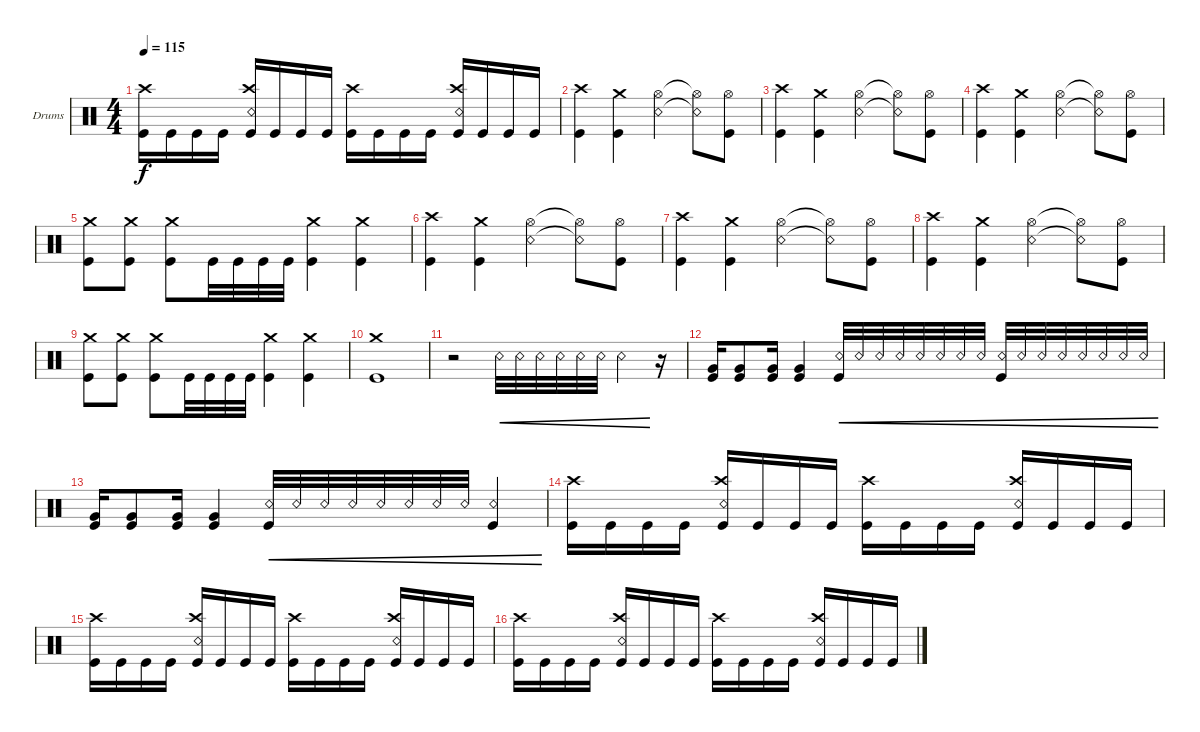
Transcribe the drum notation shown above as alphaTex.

\bracketExtendMode groupsimilarinstruments
\firstSystemTrackNameOrientation horizontal
\otherSystemsTrackNameOrientation horizontal
\track ("Drumkit" "Drums") {instrument percussion}
\staff {score}
\articulation defaults
\ts (4 4)
\tempo 115
\clef neutral
\scale
0.333333
\ks c
("Kick (hit)" "Crash high (hit)").16{dy f} "Kick (hit)".16 "Kick (hit)".16 "Kick (hit)".16 ("Kick (hit)" "Snare (rim shot)" "Crash high (hit)").16 "Kick (hit)".16 "Kick (hit)".16 "Kick (hit)".16 ("Kick (hit)" "Crash high (hit)").16 "Kick (hit)".16 "Kick (hit)".16 "Kick (hit)".16 ("Kick (hit)" "Snare (rim shot)" "Crash high (hit)").16 "Kick (hit)".16 "Kick (hit)".16 "Kick (hit)".16 |
\scale
0.333333 ("Kick (hit)" "Crash high (hit)").4 ("Kick (hit)" "Crash medium (hit)").4 ("Snare (rim shot)" "Hi-Hat (open)").4 ("Snare (rim shot)"{t} "Hi-Hat (open)"{t}).8 ("Kick (hit)" "Hi-Hat (open)").8 |
\scale
0.333333 ("Kick (hit)" "Crash high (hit)").4 ("Kick (hit)" "Crash medium (hit)").4 ("Snare (rim shot)" "Hi-Hat (open)").4 ("Snare (rim shot)"{t} "Hi-Hat (open)"{t}).8 ("Kick (hit)" "Hi-Hat (open)").8 |
\scale
0.333333 ("Kick (hit)" "Crash high (hit)").4 ("Kick (hit)" "Crash medium (hit)").4 ("Snare (rim shot)" "Hi-Hat (open)").4 ("Snare (rim shot)"{t} "Hi-Hat (open)"{t}).8 ("Kick (hit)" "Hi-Hat (open)").8 |
\scale
0.333333 ("Kick (hit)" "Crash medium (hit)").8 ("Kick (hit)" "Crash medium (hit)").8 ("Kick (hit)" "Crash medium (hit)").8 "Kick (hit)".32 "Kick (hit)".32 "Kick (hit)".32 "Kick (hit)".32 ("Kick (hit)" "Crash medium (hit)").4 ("Kick (hit)" "Crash medium (hit)").4 |
\scale
0.333333 ("Kick (hit)" "Crash high (hit)").4 ("Kick (hit)" "Crash medium (hit)").4 ("Snare (rim shot)" "Hi-Hat (open)").4 ("Snare (rim shot)"{t} "Hi-Hat (open)"{t}).8 ("Kick (hit)" "Hi-Hat (open)").8 |
\scale
0.333333 ("Kick (hit)" "Crash high (hit)").4 ("Kick (hit)" "Crash medium (hit)").4 ("Snare (rim shot)" "Hi-Hat (open)").4 ("Snare (rim shot)"{t} "Hi-Hat (open)"{t}).8 ("Kick (hit)" "Hi-Hat (open)").8 |
\scale
0.333333 ("Kick (hit)" "Crash high (hit)").4 ("Kick (hit)" "Crash medium (hit)").4 ("Snare (rim shot)" "Hi-Hat (open)").4 ("Snare (rim shot)"{t} "Hi-Hat (open)"{t}).8 ("Kick (hit)" "Hi-Hat (open)").8 |
\scale
0.333333 ("Kick (hit)" "Crash medium (hit)").8 ("Kick (hit)" "Crash medium (hit)").8 ("Kick (hit)" "Crash medium (hit)").8 "Kick (hit)".32 "Kick (hit)".32 "Kick (hit)".32 "Kick (hit)".32 ("Kick (hit)" "Crash medium (hit)").4 ("Kick (hit)" "Crash medium (hit)").4 |
\scale
0.333333 ("Kick (hit)" "Crash medium (hit)").1 |
\scale
0.333333 r.2 "Snare (rim shot)".32{cre} "Snare (rim shot)".32{cre} "Snare (rim shot)".32{cre} "Snare (rim shot)".32{cre} "Snare (rim shot)".32{cre} "Snare (rim shot)".32{cre} "Snare (rim shot)".4{cre} r.16 |
("Kick (hit)" "Very Low Tom (hit)").16 ("Kick (hit)" "Very Low Tom (hit)").8 ("Kick (hit)" "Very Low Tom (hit)").16 ("Kick (hit)" "Very Low Tom (hit)").4 ("Snare (rim shot)" "Kick (hit)").32{cre} "Snare (rim shot)".32{cre} "Snare (rim shot)".32{cre} "Snare (rim shot)".32{cre} "Snare (rim shot)".32{cre} "Snare (rim shot)".32{cre} "Snare (rim shot)".32{cre} "Snare (rim shot)".32{cre} ("Snare (rim shot)" "Kick (hit)").32{cre} "Snare (rim shot)".32{cre} "Snare (rim shot)".32{cre} "Snare (rim shot)".32{cre} "Snare (rim shot)".32{cre} "Snare (rim shot)".32{cre} "Snare (rim shot)".32{cre} "Snare (rim shot)".32{cre} |
("Kick (hit)" "Very Low Tom (hit)").16 ("Kick (hit)" "Very Low Tom (hit)").8 ("Kick (hit)" "Very Low Tom (hit)").16 ("Kick (hit)" "Very Low Tom (hit)").4 ("Snare (rim shot)" "Kick (hit)").32{cre} "Snare (rim shot)".32{cre} "Snare (rim shot)".32{cre} "Snare (rim shot)".32{cre} "Snare (rim shot)".32{cre} "Snare (rim shot)".32{cre} "Snare (rim shot)".32{cre} "Snare (rim shot)".32{cre} ("Snare (rim shot)" "Kick (hit)").4{cre} |
\scale
0.333333 ("Kick (hit)" "Crash high (hit)").16 "Kick (hit)".16 "Kick (hit)".16 "Kick (hit)".16 ("Kick (hit)" "Snare (rim shot)" "Crash high (hit)").16 "Kick (hit)".16 "Kick (hit)".16 "Kick (hit)".16 ("Kick (hit)" "Crash high (hit)").16 "Kick (hit)".16 "Kick (hit)".16 "Kick (hit)".16 ("Kick (hit)" "Snare (rim shot)" "Crash high (hit)").16 "Kick (hit)".16 "Kick (hit)".16 "Kick (hit)".16 |
\scale
0.333333 ("Kick (hit)" "Crash high (hit)").16 "Kick (hit)".16 "Kick (hit)".16 "Kick (hit)".16 ("Kick (hit)" "Snare (rim shot)" "Crash high (hit)").16 "Kick (hit)".16 "Kick (hit)".16 "Kick (hit)".16 ("Kick (hit)" "Crash high (hit)").16 "Kick (hit)".16 "Kick (hit)".16 "Kick (hit)".16 ("Kick (hit)" "Snare (rim shot)" "Crash high (hit)").16 "Kick (hit)".16 "Kick (hit)".16 "Kick (hit)".16 |
\scale
0.333333 ("Kick (hit)" "Crash high (hit)").16 "Kick (hit)".16 "Kick (hit)".16 "Kick (hit)".16 ("Kick (hit)" "Snare (rim shot)" "Crash high (hit)").16 "Kick (hit)".16 "Kick (hit)".16 "Kick (hit)".16 ("Kick (hit)" "Crash high (hit)").16 "Kick (hit)".16 "Kick (hit)".16 "Kick (hit)".16 ("Kick (hit)" "Snare (rim shot)" "Crash high (hit)").16 "Kick (hit)".16 "Kick (hit)".16 "Kick (hit)".16
